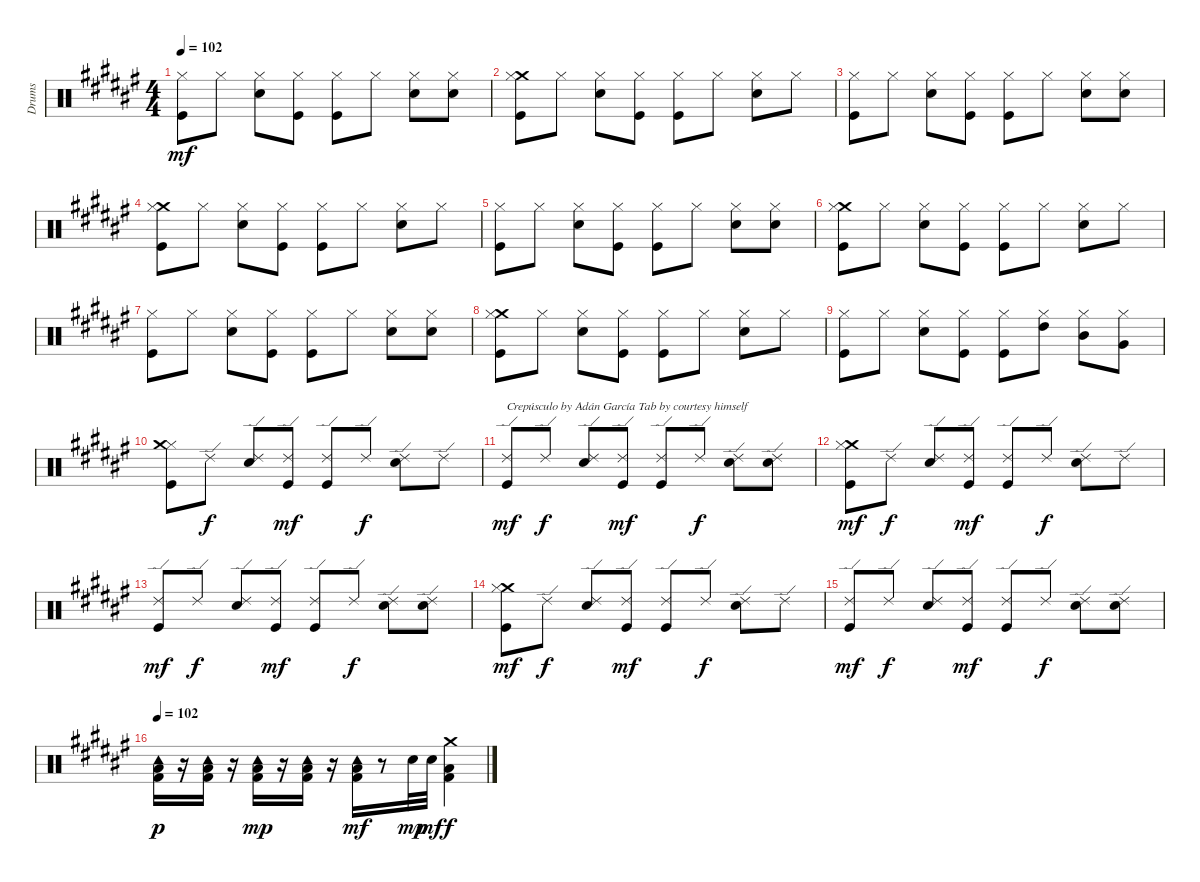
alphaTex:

\track ("Drums" "Drums") {instrument percussion}
\staff {score}
\articulation defaults
\ts (4 4)
\tempo 102
\clef neutral
\ks f#
("Kick (hit)" "Hi-Hat (closed)").8{dy mf} "Hi-Hat (closed)".8 ("Electric Snare (hit)" "Hi-Hat (closed)").8 ("Kick (hit)" "Hi-Hat (closed)").8 ("Kick (hit)" "Hi-Hat (closed)").8 "Hi-Hat (closed)".8 ("Electric Snare (hit)" "Hi-Hat (closed)").8 ("Electric Snare (hit)" "Hi-Hat (closed)").8 |
("Crash medium (hit)" "Kick (hit)" "Hi-Hat (closed)").8 "Hi-Hat (closed)".8 ("Electric Snare (hit)" "Hi-Hat (closed)").8 ("Kick (hit)" "Hi-Hat (closed)").8 ("Kick (hit)" "Hi-Hat (closed)").8 "Hi-Hat (closed)".8 ("Electric Snare (hit)" "Hi-Hat (closed)").8 "Hi-Hat (closed)".8 |
("Kick (hit)" "Hi-Hat (closed)").8 "Hi-Hat (closed)".8 ("Electric Snare (hit)" "Hi-Hat (closed)").8 ("Kick (hit)" "Hi-Hat (closed)").8 ("Kick (hit)" "Hi-Hat (closed)").8 "Hi-Hat (closed)".8 ("Electric Snare (hit)" "Hi-Hat (closed)").8 ("Electric Snare (hit)" "Hi-Hat (closed)").8 |
("Crash medium (hit)" "Kick (hit)" "Hi-Hat (closed)").8 "Hi-Hat (closed)".8 ("Electric Snare (hit)" "Hi-Hat (closed)").8 ("Kick (hit)" "Hi-Hat (closed)").8 ("Kick (hit)" "Hi-Hat (closed)").8 "Hi-Hat (closed)".8 ("Electric Snare (hit)" "Hi-Hat (closed)").8 "Hi-Hat (closed)".8 |
("Kick (hit)" "Hi-Hat (closed)").8 "Hi-Hat (closed)".8 ("Electric Snare (hit)" "Hi-Hat (closed)").8 ("Kick (hit)" "Hi-Hat (closed)").8 ("Kick (hit)" "Hi-Hat (closed)").8 "Hi-Hat (closed)".8 ("Electric Snare (hit)" "Hi-Hat (closed)").8 ("Electric Snare (hit)" "Hi-Hat (closed)").8 |
("Crash medium (hit)" "Kick (hit)" "Hi-Hat (closed)").8 "Hi-Hat (closed)".8 ("Electric Snare (hit)" "Hi-Hat (closed)").8 ("Kick (hit)" "Hi-Hat (closed)").8 ("Kick (hit)" "Hi-Hat (closed)").8 "Hi-Hat (closed)".8 ("Electric Snare (hit)" "Hi-Hat (closed)").8 "Hi-Hat (closed)".8 |
("Kick (hit)" "Hi-Hat (closed)").8 "Hi-Hat (closed)".8 ("Electric Snare (hit)" "Hi-Hat (closed)").8 ("Kick (hit)" "Hi-Hat (closed)").8 ("Kick (hit)" "Hi-Hat (closed)").8 "Hi-Hat (closed)".8 ("Electric Snare (hit)" "Hi-Hat (closed)").8 ("Electric Snare (hit)" "Hi-Hat (closed)").8 |
("Crash medium (hit)" "Kick (hit)" "Hi-Hat (closed)").8 "Hi-Hat (closed)".8 ("Electric Snare (hit)" "Hi-Hat (closed)").8 ("Kick (hit)" "Hi-Hat (closed)").8 ("Kick (hit)" "Hi-Hat (closed)").8 "Hi-Hat (closed)".8 ("Electric Snare (hit)" "Hi-Hat (closed)").8 "Hi-Hat (closed)".8 |
("Kick (hit)" "Hi-Hat (closed)").8 "Hi-Hat (closed)".8 ("Electric Snare (hit)" "Hi-Hat (closed)").8 ("Kick (hit)" "Hi-Hat (closed)").8 ("Kick (hit)" "Hi-Hat (closed)").8 ("Hi-Hat (closed)" "High Tom (hit)").8 ("Mid Tom (hit)" "Hi-Hat (closed)").8 ("Hi-Hat (closed)" "Very Low Tom (hit)").8 |
("Kick (hit)" "Hi-Hat (closed)" "Crash medium (hit)").8 "Ride (edge) 2".8{dy f} ("Electric Snare (hit)" "Ride (edge) 2").8 ("Kick (hit)" "Ride (edge) 2").8{dy mf} ("Kick (hit)" "Ride (edge) 2").8 "Ride (edge) 2".8{dy f} ("Electric Snare (hit)" "Ride (edge) 2").8 "Ride (edge) 2".8 |
("Kick (hit)" "Ride (edge) 2").8{txt "Crepúsculo by Adán García Tab by courtesy himself" dy mf} "Ride (edge) 2".8{dy f} ("Electric Snare (hit)" "Ride (edge) 2").8 ("Kick (hit)" "Ride (edge) 2").8{dy mf} ("Kick (hit)" "Ride (edge) 2").8 "Ride (edge) 2".8{dy f} ("Electric Snare (hit)" "Ride (edge) 2").8 ("Electric Snare (hit)" "Ride (edge) 2").8 |
("Crash medium (hit)" "Kick (hit)" "Hi-Hat (closed)").8{dy mf} "Ride (edge) 2".8{dy f} ("Electric Snare (hit)" "Ride (edge) 2").8 ("Kick (hit)" "Ride (edge) 2").8{dy mf} ("Kick (hit)" "Ride (edge) 2").8 "Ride (edge) 2".8{dy f} ("Electric Snare (hit)" "Ride (edge) 2").8 "Ride (edge) 2".8 |
("Kick (hit)" "Ride (edge) 2").8{dy mf} "Ride (edge) 2".8{dy f} ("Electric Snare (hit)" "Ride (edge) 2").8 ("Kick (hit)" "Ride (edge) 2").8{dy mf} ("Kick (hit)" "Ride (edge) 2").8 "Ride (edge) 2".8{dy f} ("Electric Snare (hit)" "Ride (edge) 2").8 ("Electric Snare (hit)" "Ride (edge) 2").8 |
("Crash medium (hit)" "Kick (hit)" "Hi-Hat (closed)").8{dy mf} "Ride (edge) 2".8{dy f} ("Electric Snare (hit)" "Ride (edge) 2").8 ("Kick (hit)" "Ride (edge) 2").8{dy mf} ("Kick (hit)" "Ride (edge) 2").8 "Ride (edge) 2".8{dy f} ("Electric Snare (hit)" "Ride (edge) 2").8 "Ride (edge) 2".8 |
("Kick (hit)" "Ride (edge) 2").8{dy mf} "Ride (edge) 2".8{dy f} ("Electric Snare (hit)" "Ride (edge) 2").8 ("Kick (hit)" "Ride (edge) 2").8{dy mf} ("Kick (hit)" "Ride (edge) 2").8 "Ride (edge) 2".8{dy f} ("Electric Snare (hit)" "Ride (edge) 2").8 ("Electric Snare (hit)" "Ride (edge) 2").8 |
\tempo 102
("Tambourine (hit)" "Kick (hit) 2" "Low Floor Tom (hit)").16{dy p} r.16 ("Tambourine (hit)" "Kick (hit) 2" "Low Floor Tom (hit)").16 r.16 ("Tambourine (hit)" "Kick (hit) 2" "Low Floor Tom (hit)").16{dy mp} r.16 ("Tambourine (hit)" "Kick (hit) 2" "Low Floor Tom (hit)").16 r.16 ("Tambourine (hit)" "Kick (hit) 2" "Low Floor Tom (hit)").16{dy mf} r.8 "Electric Snare (hit)".32{dy mp} "Electric Snare (hit)".32{dy mf} ("Kick (hit) 2" "Low Floor Tom (hit)" "Crash medium (hit)").4{dy f}
